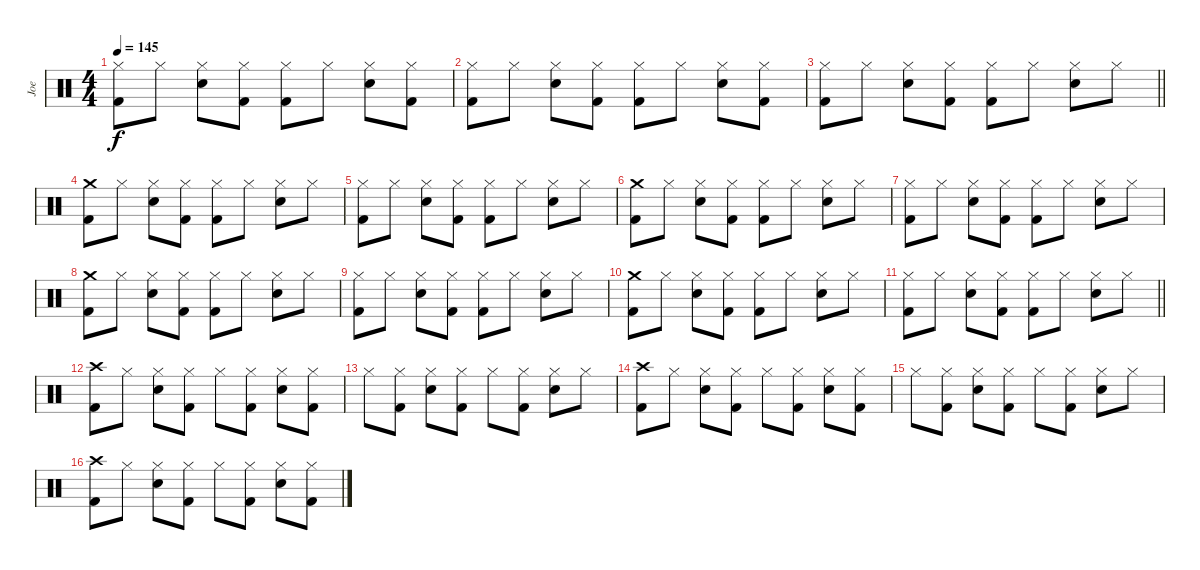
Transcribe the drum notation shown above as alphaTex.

\track ("Joe" "Joe") {instrument percussion}
\staff {score}
\articulation defaults
\ts (4 4)
\tempo 145
\clef neutral
\ks c
("Hi-Hat (closed)" "Kick (hit) 2").8{dy f} "Hi-Hat (closed)".8 ("Hi-Hat (closed)" "Snare (hit) 2").8 ("Hi-Hat (closed)" "Kick (hit) 2").8 ("Hi-Hat (closed)" "Kick (hit) 2").8 "Hi-Hat (closed)".8 ("Hi-Hat (closed)" "Snare (hit) 2").8 ("Hi-Hat (closed)" "Kick (hit) 2").8 |
("Hi-Hat (closed)" "Kick (hit) 2").8 "Hi-Hat (closed)".8 ("Hi-Hat (closed)" "Snare (hit) 2").8 ("Hi-Hat (closed)" "Kick (hit) 2").8 ("Hi-Hat (closed)" "Kick (hit) 2").8 "Hi-Hat (closed)".8 ("Hi-Hat (closed)" "Snare (hit) 2").8 ("Hi-Hat (closed)" "Kick (hit) 2").8 |
\barLineRight lightlight
("Hi-Hat (closed)" "Kick (hit) 2").8 "Hi-Hat (closed)".8 ("Hi-Hat (closed)" "Snare (hit) 2").8 ("Hi-Hat (closed)" "Kick (hit) 2").8 ("Hi-Hat (closed)" "Kick (hit) 2").8 "Hi-Hat (closed)".8 ("Hi-Hat (closed)" "Snare (hit) 2").8 "Hi-Hat (closed)".8 |
\section ("" "")
("Crash medium (hit)" "Kick (hit) 2").8 "Hi-Hat (closed)".8 ("Hi-Hat (closed)" "Snare (hit) 2").8 ("Hi-Hat (closed)" "Kick (hit) 2").8 ("Hi-Hat (closed)" "Kick (hit) 2").8 "Hi-Hat (closed)".8 ("Hi-Hat (closed)" "Snare (hit) 2").8 "Hi-Hat (closed)".8 |
("Hi-Hat (closed)" "Kick (hit) 2").8 "Hi-Hat (closed)".8 ("Hi-Hat (closed)" "Snare (hit) 2").8 ("Hi-Hat (closed)" "Kick (hit) 2").8 ("Hi-Hat (closed)" "Kick (hit) 2").8 "Hi-Hat (closed)".8 ("Hi-Hat (closed)" "Snare (hit) 2").8 "Hi-Hat (closed)".8 |
("Crash medium (hit)" "Kick (hit) 2").8 "Hi-Hat (closed)".8 ("Hi-Hat (closed)" "Snare (hit) 2").8 ("Hi-Hat (closed)" "Kick (hit) 2").8 ("Hi-Hat (closed)" "Kick (hit) 2").8 "Hi-Hat (closed)".8 ("Hi-Hat (closed)" "Snare (hit) 2").8 "Hi-Hat (closed)".8 |
("Hi-Hat (closed)" "Kick (hit) 2").8 "Hi-Hat (closed)".8 ("Hi-Hat (closed)" "Snare (hit) 2").8 ("Hi-Hat (closed)" "Kick (hit) 2").8 ("Hi-Hat (closed)" "Kick (hit) 2").8 "Hi-Hat (closed)".8 ("Hi-Hat (closed)" "Snare (hit) 2").8 "Hi-Hat (closed)".8 |
("Crash medium (hit)" "Kick (hit) 2").8 "Hi-Hat (closed)".8 ("Hi-Hat (closed)" "Snare (hit) 2").8 ("Hi-Hat (closed)" "Kick (hit) 2").8 ("Hi-Hat (closed)" "Kick (hit) 2").8 "Hi-Hat (closed)".8 ("Hi-Hat (closed)" "Snare (hit) 2").8 "Hi-Hat (closed)".8 |
("Hi-Hat (closed)" "Kick (hit) 2").8 "Hi-Hat (closed)".8 ("Hi-Hat (closed)" "Snare (hit) 2").8 ("Hi-Hat (closed)" "Kick (hit) 2").8 ("Hi-Hat (closed)" "Kick (hit) 2").8 "Hi-Hat (closed)".8 ("Hi-Hat (closed)" "Snare (hit) 2").8 "Hi-Hat (closed)".8 |
("Crash medium (hit)" "Kick (hit) 2").8 "Hi-Hat (closed)".8 ("Hi-Hat (closed)" "Snare (hit) 2").8 ("Hi-Hat (closed)" "Kick (hit) 2").8 ("Hi-Hat (closed)" "Kick (hit) 2").8 "Hi-Hat (closed)".8 ("Hi-Hat (closed)" "Snare (hit) 2").8 "Hi-Hat (closed)".8 |
\barLineRight lightlight
("Hi-Hat (closed)" "Kick (hit) 2").8 "Hi-Hat (closed)".8 ("Hi-Hat (closed)" "Snare (hit) 2").8 ("Hi-Hat (closed)" "Kick (hit) 2").8 ("Hi-Hat (closed)" "Kick (hit) 2").8 "Hi-Hat (closed)".8 ("Hi-Hat (closed)" "Snare (hit) 2").8 "Hi-Hat (closed)".8 |
\section ("" "")
("Crash high (hit)" "Kick (hit) 2").8 "Hi-Hat (closed)".8 ("Hi-Hat (closed)" "Snare (hit) 2").8 ("Hi-Hat (closed)" "Kick (hit) 2").8 "Hi-Hat (closed)".8 ("Hi-Hat (closed)" "Kick (hit) 2").8 ("Hi-Hat (closed)" "Snare (hit) 2").8 ("Hi-Hat (closed)" "Kick (hit) 2").8 |
"Hi-Hat (closed)".8 ("Hi-Hat (closed)" "Kick (hit) 2").8 ("Hi-Hat (closed)" "Snare (hit) 2").8 ("Hi-Hat (closed)" "Kick (hit) 2").8 "Hi-Hat (closed)".8 ("Hi-Hat (closed)" "Kick (hit) 2").8 ("Hi-Hat (closed)" "Snare (hit) 2").8 "Hi-Hat (closed)".8 |
("Crash high (hit)" "Kick (hit) 2").8 "Hi-Hat (closed)".8 ("Hi-Hat (closed)" "Snare (hit) 2").8 ("Hi-Hat (closed)" "Kick (hit) 2").8 "Hi-Hat (closed)".8 ("Hi-Hat (closed)" "Kick (hit) 2").8 ("Hi-Hat (closed)" "Snare (hit) 2").8 ("Hi-Hat (closed)" "Kick (hit) 2").8 |
"Hi-Hat (closed)".8 ("Hi-Hat (closed)" "Kick (hit) 2").8 ("Hi-Hat (closed)" "Snare (hit) 2").8 ("Hi-Hat (closed)" "Kick (hit) 2").8 "Hi-Hat (closed)".8 ("Hi-Hat (closed)" "Kick (hit) 2").8 ("Hi-Hat (closed)" "Snare (hit) 2").8 "Hi-Hat (closed)".8 |
("Crash high (hit)" "Kick (hit) 2").8 "Hi-Hat (closed)".8 ("Hi-Hat (closed)" "Snare (hit) 2").8 ("Hi-Hat (closed)" "Kick (hit) 2").8 "Hi-Hat (closed)".8 ("Hi-Hat (closed)" "Kick (hit) 2").8 ("Hi-Hat (closed)" "Snare (hit) 2").8 ("Hi-Hat (closed)" "Kick (hit) 2").8
